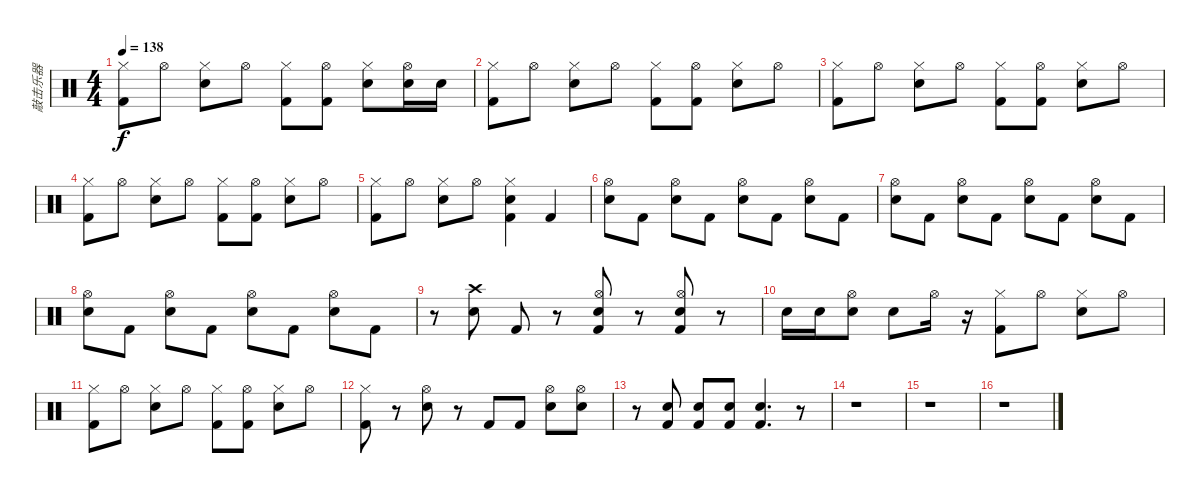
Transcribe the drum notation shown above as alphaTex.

\track ("敲击乐器" "敲击乐器") {instrument percussion}
\staff {score}
\articulation defaults
\ts (4 4)
\tempo 138
\clef neutral
\ks c
("Hi-Hat (closed)" "Kick (hit) 2").8{dy f} "Hi-Hat (open)".8 ("Hi-Hat (closed)" "Electric Snare (hit)").8 "Hi-Hat (open)".8 ("Hi-Hat (closed)" "Kick (hit) 2").8 ("Hi-Hat (open)" "Kick (hit) 2").8 ("Hi-Hat (closed)" "Electric Snare (hit)").8 ("Hi-Hat (open)" "Electric Snare (hit)").16 "Electric Snare (hit)".16 |
("Hi-Hat (closed)" "Kick (hit) 2").8 "Hi-Hat (open)".8 ("Hi-Hat (closed)" "Electric Snare (hit)").8 "Hi-Hat (open)".8 ("Hi-Hat (closed)" "Kick (hit) 2").8 ("Hi-Hat (open)" "Kick (hit) 2").8 ("Hi-Hat (closed)" "Electric Snare (hit)").8 "Hi-Hat (open)".8 |
("Hi-Hat (closed)" "Kick (hit) 2").8 "Hi-Hat (open)".8 ("Hi-Hat (closed)" "Electric Snare (hit)").8 "Hi-Hat (open)".8 ("Hi-Hat (closed)" "Kick (hit) 2").8 ("Hi-Hat (open)" "Kick (hit) 2").8 ("Hi-Hat (closed)" "Electric Snare (hit)").8 "Hi-Hat (open)".8 |
("Hi-Hat (closed)" "Kick (hit) 2").8 "Hi-Hat (open)".8 ("Hi-Hat (closed)" "Electric Snare (hit)").8 "Hi-Hat (open)".8 ("Hi-Hat (closed)" "Kick (hit) 2").8 ("Hi-Hat (open)" "Kick (hit) 2").8 ("Hi-Hat (closed)" "Electric Snare (hit)").8 "Hi-Hat (open)".8 |
("Hi-Hat (closed)" "Kick (hit) 2").8 "Hi-Hat (open)".8 ("Hi-Hat (closed)" "Electric Snare (hit)").8 "Hi-Hat (open)".8 ("Hi-Hat (closed)" "Electric Snare (hit)" "Kick (hit) 2").4 "Kick (hit) 2".4 |
("Hi-Hat (open)" "Electric Snare (hit)").8 "Kick (hit) 2".8 ("Hi-Hat (open)" "Electric Snare (hit)").8 "Kick (hit) 2".8 ("Hi-Hat (open)" "Electric Snare (hit)").8 "Kick (hit) 2".8 ("Hi-Hat (open)" "Electric Snare (hit)").8 "Kick (hit) 2".8 |
("Hi-Hat (open)" "Electric Snare (hit)").8 "Kick (hit) 2".8 ("Hi-Hat (open)" "Electric Snare (hit)").8 "Kick (hit) 2".8 ("Hi-Hat (open)" "Electric Snare (hit)").8 "Kick (hit) 2".8 ("Hi-Hat (open)" "Electric Snare (hit)").8 "Kick (hit) 2".8 |
("Hi-Hat (open)" "Electric Snare (hit)").8 "Kick (hit) 2".8 ("Hi-Hat (open)" "Electric Snare (hit)").8 "Kick (hit) 2".8 ("Hi-Hat (open)" "Electric Snare (hit)").8 "Kick (hit) 2".8 ("Hi-Hat (open)" "Electric Snare (hit)").8 "Kick (hit) 2".8 |
r.8 ("Crash high (hit)" "Electric Snare (hit)").8 "Kick (hit) 2".8 r.8 ("Hi-Hat (open)" "Electric Snare (hit)" "Kick (hit) 2").8 r.8 ("Hi-Hat (open)" "Electric Snare (hit)" "Kick (hit) 2").8 r.8 |
"Electric Snare (hit)".16 "Electric Snare (hit)".16 ("Hi-Hat (open)" "Electric Snare (hit)").8 "Electric Snare (hit)".8 "Hi-Hat (open)".16 r.16 ("Hi-Hat (closed)" "Kick (hit) 2").8 "Hi-Hat (open)".8 ("Hi-Hat (closed)" "Electric Snare (hit)").8 "Hi-Hat (open)".8 |
("Hi-Hat (closed)" "Kick (hit) 2").8 "Hi-Hat (open)".8 ("Hi-Hat (closed)" "Electric Snare (hit)").8 "Hi-Hat (open)".8 ("Hi-Hat (closed)" "Kick (hit) 2").8 ("Hi-Hat (open)" "Kick (hit) 2").8 ("Hi-Hat (closed)" "Electric Snare (hit)").8 "Hi-Hat (open)".8 |
("Hi-Hat (closed)" "Kick (hit) 2").8 r.8 ("Hi-Hat (open)" "Snare (hit)").8 r.8 "Kick (hit) 2".8 "Kick (hit) 2".8 ("Hi-Hat (open)" "Electric Snare (hit)").8 ("Hi-Hat (open)" "Electric Snare (hit)").8 |
r.8 ("Electric Snare (hit)" "Kick (hit) 2").8 ("Electric Snare (hit)" "Kick (hit) 2").8 ("Electric Snare (hit)" "Kick (hit) 2").8 ("Electric Snare (hit)" "Kick (hit) 2").4{d} r.8 |
r.1 |
r.1 |
r.1
